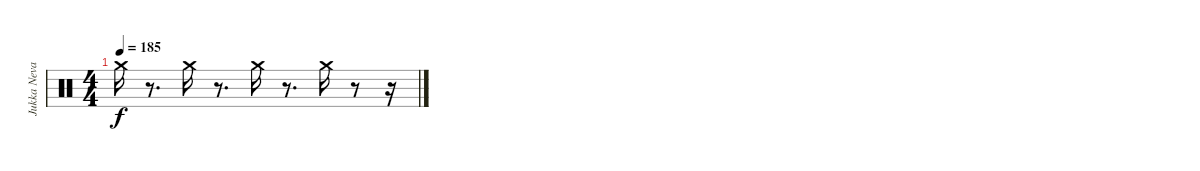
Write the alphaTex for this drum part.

\track ("Jukka Nevalinen" "Jukka Neva") {instrument percussion}
\staff {score}
\articulation defaults
\ts (4 4)
\tempo 185
\clef neutral
\ks c "Crash medium (hit)".16{dy f volume 0}
r.8{d} "Crash medium (hit)".16{volume 0} r.8{d} "Crash medium (hit)".16{volume 0} r.8{d} "Crash medium (hit)".16{volume 0} r.8 r.16
